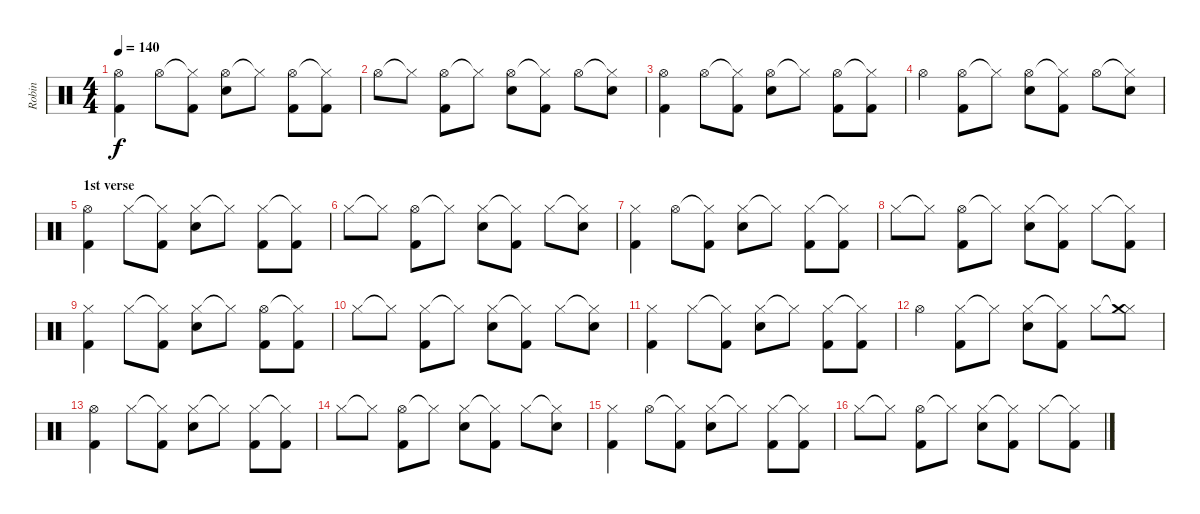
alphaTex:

\track ("Robin" "Robin") {instrument percussion}
\staff {score}
\articulation defaults
\ts (4 4)
\tempo 140
\clef neutral
\ks c
("Hi-Hat (open)" "Kick (hit) 2").4{dy f} "Hi-Hat (open)".8 ("Hi-Hat (closed)"{t} "Kick (hit) 2").8 ("Hi-Hat (open)" "Snare (hit) 2").8 "Hi-Hat (closed)"{t}.8 ("Hi-Hat (open)" "Kick (hit) 2").8 ("Hi-Hat (closed)"{t} "Kick (hit) 2").8 |
"Hi-Hat (open)".8 "Hi-Hat (closed)"{t}.8 ("Hi-Hat (open)" "Kick (hit) 2").8 "Hi-Hat (closed)"{t}.8 ("Hi-Hat (open)" "Snare (hit) 2").8 ("Hi-Hat (closed)"{t} "Kick (hit) 2").8 "Hi-Hat (open)".8 ("Hi-Hat (closed)"{t} "Snare (hit) 2").8 |
("Hi-Hat (open)" "Kick (hit) 2").4 "Hi-Hat (open)".8 ("Hi-Hat (closed)"{t} "Kick (hit) 2").8 ("Hi-Hat (open)" "Snare (hit) 2").8 "Hi-Hat (closed)"{t}.8 ("Hi-Hat (open)" "Kick (hit) 2").8 ("Hi-Hat (closed)"{t} "Kick (hit) 2").8 |
"Hi-Hat (open)".4 ("Hi-Hat (open)" "Kick (hit) 2").8 "Hi-Hat (closed)"{t}.8 ("Hi-Hat (open)" "Snare (hit) 2").8 ("Hi-Hat (closed)"{t} "Kick (hit) 2").8 "Hi-Hat (open)".8 ("Hi-Hat (closed)"{t} "Snare (hit) 2").8 |
\section ("" "1st verse")
("Hi-Hat (open)" "Kick (hit) 2").4 "Hi-Hat (closed)".8 ("Hi-Hat (closed)"{t} "Kick (hit) 2").8 ("Hi-Hat (closed)" "Snare (hit) 2").8 "Hi-Hat (closed)"{t}.8 ("Hi-Hat (closed)" "Kick (hit) 2").8 ("Hi-Hat (closed)"{t} "Kick (hit) 2").8 |
"Hi-Hat (closed)".8 "Hi-Hat (closed)"{t}.8 ("Hi-Hat (open)" "Kick (hit) 2").8 "Hi-Hat (closed)"{t}.8 ("Hi-Hat (closed)" "Snare (hit) 2").8 ("Hi-Hat (closed)"{t} "Kick (hit) 2").8 "Hi-Hat (closed)".8 ("Hi-Hat (closed)"{t} "Snare (hit) 2").8 |
("Hi-Hat (closed)" "Kick (hit) 2").4 "Hi-Hat (open)".8 ("Hi-Hat (closed)"{t} "Kick (hit) 2").8 ("Hi-Hat (closed)" "Snare (hit) 2").8 "Hi-Hat (closed)"{t}.8 ("Hi-Hat (closed)" "Kick (hit) 2").8 ("Hi-Hat (closed)"{t} "Kick (hit) 2").8 |
"Hi-Hat (closed)".8 "Hi-Hat (closed)"{t}.8 ("Hi-Hat (open)" "Kick (hit) 2").8 "Hi-Hat (closed)"{t}.8 ("Hi-Hat (closed)" "Snare (hit) 2").8 ("Hi-Hat (closed)"{t} "Kick (hit) 2").8 "Hi-Hat (closed)".8 ("Hi-Hat (closed)"{t} "Kick (hit) 2").8 |
("Hi-Hat (closed)" "Kick (hit) 2").4 "Hi-Hat (closed)".8 ("Hi-Hat (closed)"{t} "Kick (hit) 2").8 ("Hi-Hat (closed)" "Snare (hit) 2").8 "Hi-Hat (closed)"{t}.8 ("Hi-Hat (open)" "Kick (hit) 2").8 ("Hi-Hat (closed)"{t} "Kick (hit) 2").8 |
"Hi-Hat (closed)".8 "Hi-Hat (closed)"{t}.8 ("Hi-Hat (closed)" "Kick (hit) 2").8 "Hi-Hat (closed)"{t}.8 ("Hi-Hat (closed)" "Snare (hit) 2").8 ("Hi-Hat (closed)"{t} "Kick (hit) 2").8 "Hi-Hat (closed)".8 ("Hi-Hat (closed)"{t} "Snare (hit) 2").8 |
("Hi-Hat (closed)" "Kick (hit) 2").4 "Hi-Hat (closed)".8 ("Hi-Hat (closed)"{t} "Kick (hit) 2").8 ("Hi-Hat (closed)" "Snare (hit) 2").8 "Hi-Hat (closed)"{t}.8 ("Hi-Hat (closed)" "Kick (hit) 2").8 ("Hi-Hat (closed)"{t} "Kick (hit) 2").8 |
"Hi-Hat (open)".4 ("Hi-Hat (closed)" "Kick (hit) 2").8 "Hi-Hat (closed)"{t}.8 ("Hi-Hat (closed)" "Snare (hit) 2").8 ("Hi-Hat (closed)"{t} "Kick (hit) 2").8 "Hi-Hat (closed)".8 ("Hi-Hat (closed)"{t} "Crash medium (hit)").8 |
("Hi-Hat (open)" "Kick (hit) 2").4 "Hi-Hat (closed)".8 ("Hi-Hat (closed)"{t} "Kick (hit) 2").8 ("Hi-Hat (closed)" "Snare (hit) 2").8 "Hi-Hat (closed)"{t}.8 ("Hi-Hat (closed)" "Kick (hit) 2").8 ("Hi-Hat (closed)"{t} "Kick (hit) 2").8 |
"Hi-Hat (closed)".8 "Hi-Hat (closed)"{t}.8 ("Hi-Hat (open)" "Kick (hit) 2").8 "Hi-Hat (closed)"{t}.8 ("Hi-Hat (closed)" "Snare (hit) 2").8 ("Hi-Hat (closed)"{t} "Kick (hit) 2").8 "Hi-Hat (closed)".8 ("Hi-Hat (closed)"{t} "Snare (hit) 2").8 |
("Hi-Hat (closed)" "Kick (hit) 2").4 "Hi-Hat (open)".8 ("Hi-Hat (closed)"{t} "Kick (hit) 2").8 ("Hi-Hat (closed)" "Snare (hit) 2").8 "Hi-Hat (closed)"{t}.8 ("Hi-Hat (closed)" "Kick (hit) 2").8 ("Hi-Hat (closed)"{t} "Kick (hit) 2").8 |
"Hi-Hat (closed)".8 "Hi-Hat (closed)"{t}.8 ("Hi-Hat (open)" "Kick (hit) 2").8 "Hi-Hat (closed)"{t}.8 ("Hi-Hat (closed)" "Snare (hit) 2").8 ("Hi-Hat (closed)"{t} "Kick (hit) 2").8 "Hi-Hat (closed)".8 ("Hi-Hat (closed)"{t} "Kick (hit) 2").8
